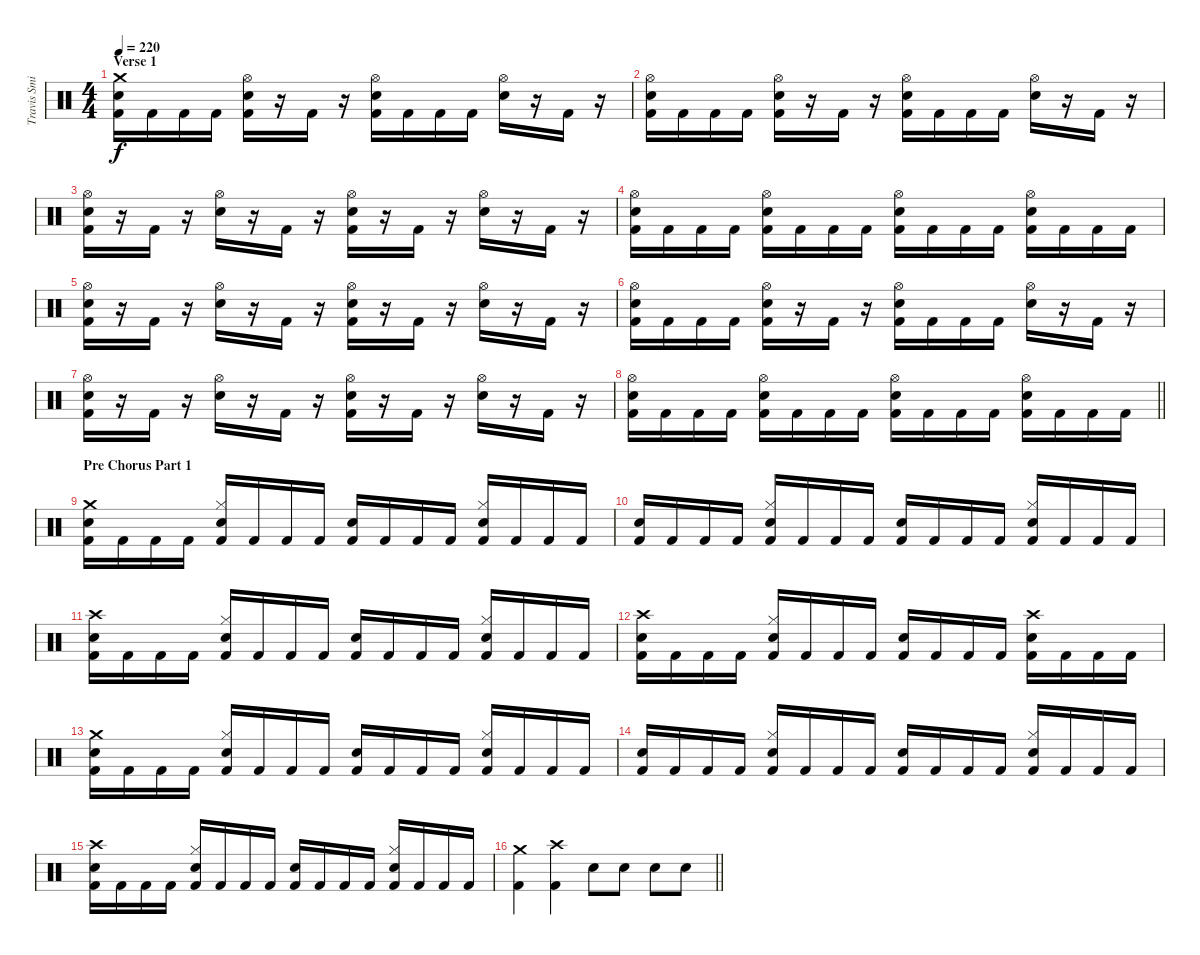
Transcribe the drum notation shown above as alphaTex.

\track ("Travis Smith" "Travis Smi") {instrument percussion}
\staff {score}
\articulation defaults
\ts (4 4)
\section ("" "Verse 1")
\tempo 220
\clef neutral
\ks c
("Crash medium (hit)" "Electric Snare (hit)" "Kick (hit) 2").16{dy f} "Kick (hit) 2".16 "Kick (hit) 2".16 "Kick (hit) 2".16 ("Hi-Hat (open)" "Electric Snare (hit)" "Kick (hit) 2").16 r.16 "Kick (hit) 2".16 r.16 ("Hi-Hat (open)" "Electric Snare (hit)" "Kick (hit) 2").16 "Kick (hit) 2".16 "Kick (hit) 2".16 "Kick (hit) 2".16 ("Hi-Hat (open)" "Electric Snare (hit)").16 r.16 "Kick (hit) 2".16 r.16 |
("Hi-Hat (open)" "Electric Snare (hit)" "Kick (hit) 2").16 "Kick (hit) 2".16 "Kick (hit) 2".16 "Kick (hit) 2".16 ("Hi-Hat (open)" "Electric Snare (hit)" "Kick (hit) 2").16 r.16 "Kick (hit) 2".16 r.16 ("Hi-Hat (open)" "Electric Snare (hit)" "Kick (hit) 2").16 "Kick (hit) 2".16 "Kick (hit) 2".16 "Kick (hit) 2".16 ("Hi-Hat (open)" "Electric Snare (hit)").16 r.16 "Kick (hit) 2".16 r.16 |
("Hi-Hat (open)" "Electric Snare (hit)" "Kick (hit) 2").16 r.16 "Kick (hit) 2".16 r.16 ("Hi-Hat (open)" "Electric Snare (hit)").16 r.16 "Kick (hit) 2".16 r.16 ("Hi-Hat (open)" "Electric Snare (hit)" "Kick (hit) 2").16 r.16 "Kick (hit) 2".16 r.16 ("Hi-Hat (open)" "Electric Snare (hit)").16 r.16 "Kick (hit) 2".16 r.16 |
("Hi-Hat (open)" "Electric Snare (hit)" "Kick (hit) 2").16 "Kick (hit) 2".16 "Kick (hit) 2".16 "Kick (hit) 2".16 ("Hi-Hat (open)" "Electric Snare (hit)" "Kick (hit) 2").16 "Kick (hit) 2".16 "Kick (hit) 2".16 "Kick (hit) 2".16 ("Hi-Hat (open)" "Electric Snare (hit)" "Kick (hit) 2").16 "Kick (hit) 2".16 "Kick (hit) 2".16 "Kick (hit) 2".16 ("Hi-Hat (open)" "Electric Snare (hit)" "Kick (hit) 2").16 "Kick (hit) 2".16 "Kick (hit) 2".16 "Kick (hit) 2".16 |
("Hi-Hat (open)" "Electric Snare (hit)" "Kick (hit) 2").16 r.16 "Kick (hit) 2".16 r.16 ("Hi-Hat (open)" "Electric Snare (hit)").16 r.16 "Kick (hit) 2".16 r.16 ("Hi-Hat (open)" "Electric Snare (hit)" "Kick (hit) 2").16 r.16 "Kick (hit) 2".16 r.16 ("Hi-Hat (open)" "Electric Snare (hit)").16 r.16 "Kick (hit) 2".16 r.16 |
("Hi-Hat (open)" "Electric Snare (hit)" "Kick (hit) 2").16 "Kick (hit) 2".16 "Kick (hit) 2".16 "Kick (hit) 2".16 ("Hi-Hat (open)" "Electric Snare (hit)" "Kick (hit) 2").16 r.16 "Kick (hit) 2".16 r.16 ("Hi-Hat (open)" "Electric Snare (hit)" "Kick (hit) 2").16 "Kick (hit) 2".16 "Kick (hit) 2".16 "Kick (hit) 2".16 ("Hi-Hat (open)" "Electric Snare (hit)").16 r.16 "Kick (hit) 2".16 r.16 |
("Hi-Hat (open)" "Electric Snare (hit)" "Kick (hit) 2").16 r.16 "Kick (hit) 2".16 r.16 ("Hi-Hat (open)" "Electric Snare (hit)").16 r.16 "Kick (hit) 2".16 r.16 ("Hi-Hat (open)" "Electric Snare (hit)" "Kick (hit) 2").16 r.16 "Kick (hit) 2".16 r.16 ("Hi-Hat (open)" "Electric Snare (hit)").16 r.16 "Kick (hit) 2".16 r.16 |
\barLineRight lightlight
("Hi-Hat (open)" "Electric Snare (hit)" "Kick (hit) 2").16 "Kick (hit) 2".16 "Kick (hit) 2".16 "Kick (hit) 2".16 ("Hi-Hat (open)" "Electric Snare (hit)" "Kick (hit) 2").16 "Kick (hit) 2".16 "Kick (hit) 2".16 "Kick (hit) 2".16 ("Hi-Hat (open)" "Electric Snare (hit)" "Kick (hit) 2").16 "Kick (hit) 2".16 "Kick (hit) 2".16 "Kick (hit) 2".16 ("Hi-Hat (open)" "Electric Snare (hit)" "Kick (hit) 2").16 "Kick (hit) 2".16 "Kick (hit) 2".16 "Kick (hit) 2".16 |
\section ("" "Pre Chorus Part 1")
("Crash medium (hit)" "Electric Snare (hit)" "Kick (hit) 2").16 "Kick (hit) 2".16 "Kick (hit) 2".16 "Kick (hit) 2".16 ("Hi-Hat (closed)" "Snare (hit) 2" "Kick (hit) 2").16 "Kick (hit) 2".16 "Kick (hit) 2".16 "Kick (hit) 2".16 ("Electric Snare (hit)" "Kick (hit) 2").16 "Kick (hit) 2".16 "Kick (hit) 2".16 "Kick (hit) 2".16 ("Hi-Hat (closed)" "Snare (hit) 2" "Kick (hit) 2").16 "Kick (hit) 2".16 "Kick (hit) 2".16 "Kick (hit) 2".16 |
("Electric Snare (hit)" "Kick (hit) 2").16 "Kick (hit) 2".16 "Kick (hit) 2".16 "Kick (hit) 2".16 ("Hi-Hat (closed)" "Snare (hit) 2" "Kick (hit) 2").16 "Kick (hit) 2".16 "Kick (hit) 2".16 "Kick (hit) 2".16 ("Electric Snare (hit)" "Kick (hit) 2").16 "Kick (hit) 2".16 "Kick (hit) 2".16 "Kick (hit) 2".16 ("Hi-Hat (closed)" "Snare (hit) 2" "Kick (hit) 2").16 "Kick (hit) 2".16 "Kick (hit) 2".16 "Kick (hit) 2".16 |
("Crash high (hit)" "Electric Snare (hit)" "Kick (hit) 2").16 "Kick (hit) 2".16 "Kick (hit) 2".16 "Kick (hit) 2".16 ("Hi-Hat (closed)" "Snare (hit) 2" "Kick (hit) 2").16 "Kick (hit) 2".16 "Kick (hit) 2".16 "Kick (hit) 2".16 ("Electric Snare (hit)" "Kick (hit) 2").16 "Kick (hit) 2".16 "Kick (hit) 2".16 "Kick (hit) 2".16 ("Hi-Hat (closed)" "Snare (hit) 2" "Kick (hit) 2").16 "Kick (hit) 2".16 "Kick (hit) 2".16 "Kick (hit) 2".16 |
("Crash high (hit)" "Electric Snare (hit)" "Kick (hit) 2").16 "Kick (hit) 2".16 "Kick (hit) 2".16 "Kick (hit) 2".16 ("Hi-Hat (closed)" "Snare (hit) 2" "Kick (hit) 2").16 "Kick (hit) 2".16 "Kick (hit) 2".16 "Kick (hit) 2".16 ("Electric Snare (hit)" "Kick (hit) 2").16 "Kick (hit) 2".16 "Kick (hit) 2".16 "Kick (hit) 2".16 ("Crash high (hit)" "Snare (hit) 2" "Kick (hit) 2").16 "Kick (hit) 2".16 "Kick (hit) 2".16 "Kick (hit) 2".16 |
("Crash medium (hit)" "Electric Snare (hit)" "Kick (hit) 2").16 "Kick (hit) 2".16 "Kick (hit) 2".16 "Kick (hit) 2".16 ("Hi-Hat (closed)" "Snare (hit) 2" "Kick (hit) 2").16 "Kick (hit) 2".16 "Kick (hit) 2".16 "Kick (hit) 2".16 ("Electric Snare (hit)" "Kick (hit) 2").16 "Kick (hit) 2".16 "Kick (hit) 2".16 "Kick (hit) 2".16 ("Hi-Hat (closed)" "Snare (hit) 2" "Kick (hit) 2").16 "Kick (hit) 2".16 "Kick (hit) 2".16 "Kick (hit) 2".16 |
("Electric Snare (hit)" "Kick (hit) 2").16 "Kick (hit) 2".16 "Kick (hit) 2".16 "Kick (hit) 2".16 ("Hi-Hat (closed)" "Snare (hit) 2" "Kick (hit) 2").16 "Kick (hit) 2".16 "Kick (hit) 2".16 "Kick (hit) 2".16 ("Electric Snare (hit)" "Kick (hit) 2").16 "Kick (hit) 2".16 "Kick (hit) 2".16 "Kick (hit) 2".16 ("Hi-Hat (closed)" "Snare (hit) 2" "Kick (hit) 2").16 "Kick (hit) 2".16 "Kick (hit) 2".16 "Kick (hit) 2".16 |
("Crash high (hit)" "Electric Snare (hit)" "Kick (hit) 2").16 "Kick (hit) 2".16 "Kick (hit) 2".16 "Kick (hit) 2".16 ("Hi-Hat (closed)" "Snare (hit) 2" "Kick (hit) 2").16 "Kick (hit) 2".16 "Kick (hit) 2".16 "Kick (hit) 2".16 ("Electric Snare (hit)" "Kick (hit) 2").16 "Kick (hit) 2".16 "Kick (hit) 2".16 "Kick (hit) 2".16 ("Hi-Hat (closed)" "Snare (hit) 2" "Kick (hit) 2").16 "Kick (hit) 2".16 "Kick (hit) 2".16 "Kick (hit) 2".16 |
\barLineRight lightlight
("Crash medium (hit)" "Kick (hit) 2").4 ("Crash high (hit)" "Kick (hit) 2").4 "Electric Snare (hit)".8 "Electric Snare (hit)".8 "Electric Snare (hit)".8 "Electric Snare (hit)".8
